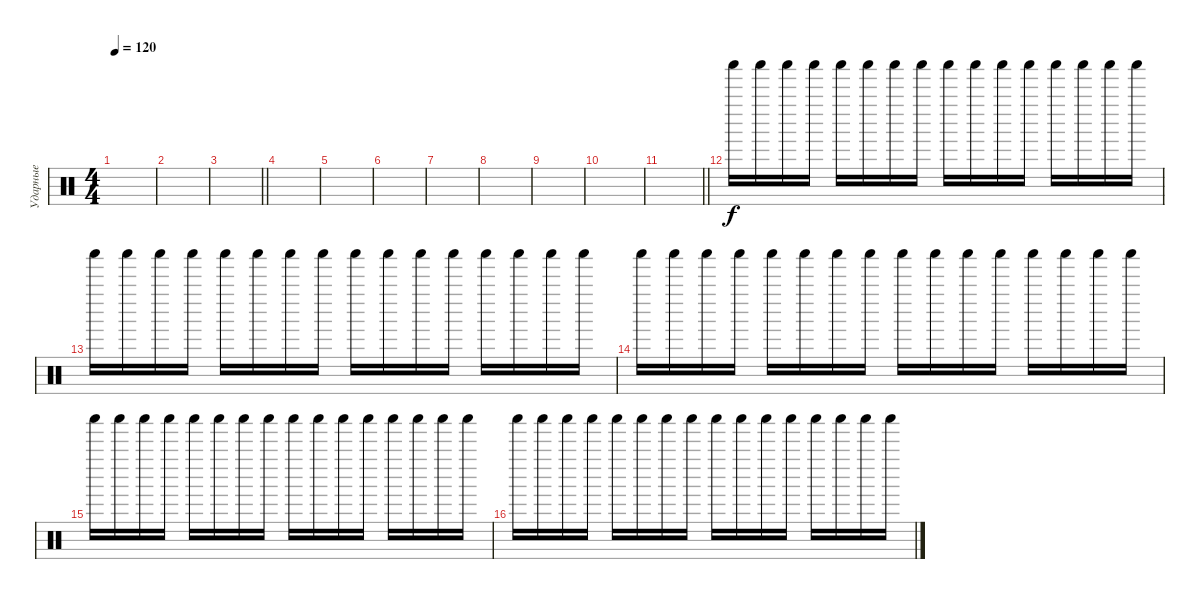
\track ("Ударные" "Ударные") {instrument percussion}
\staff {score}
\articulation defaults
\ts (4 4)
\tempo 120
\clef neutral
\ks c
|
|
\barLineRight lightlight
|
\section ("" "")
|
|
|
|
|
|
|
\barLineRight lightlight
|
\section ("" "")
"Shaker (hit)".16 "Shaker (hit)".16 "Shaker (hit)".16 "Shaker (hit)".16 "Shaker (hit)".16 "Shaker (hit)".16 "Shaker (hit)".16 "Shaker (hit)".16 "Shaker (hit)".16 "Shaker (hit)".16 "Shaker (hit)".16 "Shaker (hit)".16 "Shaker (hit)".16 "Shaker (hit)".16 "Shaker (hit)".16 "Shaker (hit)".16 |
"Shaker (hit)".16 "Shaker (hit)".16 "Shaker (hit)".16 "Shaker (hit)".16 "Shaker (hit)".16 "Shaker (hit)".16 "Shaker (hit)".16 "Shaker (hit)".16 "Shaker (hit)".16 "Shaker (hit)".16 "Shaker (hit)".16 "Shaker (hit)".16 "Shaker (hit)".16 "Shaker (hit)".16 "Shaker (hit)".16 "Shaker (hit)".16 |
"Shaker (hit)".16 "Shaker (hit)".16 "Shaker (hit)".16 "Shaker (hit)".16 "Shaker (hit)".16 "Shaker (hit)".16 "Shaker (hit)".16 "Shaker (hit)".16 "Shaker (hit)".16 "Shaker (hit)".16 "Shaker (hit)".16 "Shaker (hit)".16 "Shaker (hit)".16 "Shaker (hit)".16 "Shaker (hit)".16 "Shaker (hit)".16 |
"Shaker (hit)".16 "Shaker (hit)".16 "Shaker (hit)".16 "Shaker (hit)".16 "Shaker (hit)".16 "Shaker (hit)".16 "Shaker (hit)".16 "Shaker (hit)".16 "Shaker (hit)".16 "Shaker (hit)".16 "Shaker (hit)".16 "Shaker (hit)".16 "Shaker (hit)".16 "Shaker (hit)".16 "Shaker (hit)".16 "Shaker (hit)".16 |
"Shaker (hit)".16 "Shaker (hit)".16 "Shaker (hit)".16 "Shaker (hit)".16 "Shaker (hit)".16 "Shaker (hit)".16 "Shaker (hit)".16 "Shaker (hit)".16 "Shaker (hit)".16 "Shaker (hit)".16 "Shaker (hit)".16 "Shaker (hit)".16 "Shaker (hit)".16 "Shaker (hit)".16 "Shaker (hit)".16 "Shaker (hit)".16
